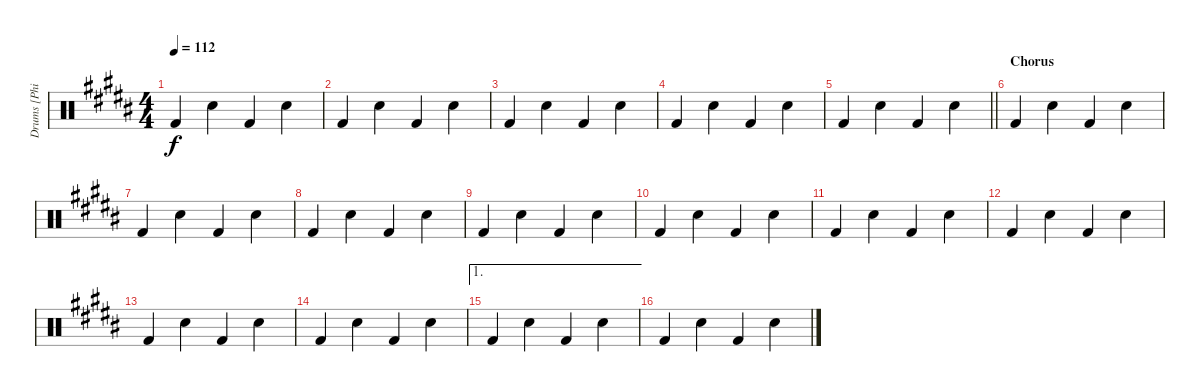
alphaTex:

\track ("Drums [Phill]" "Drums [Phi") {instrument percussion}
\staff {score}
\articulation defaults
\ts (4 4)
\tempo 112
\clef neutral
\ks b "Kick (hit) 2".4{dy f} "Snare (hit) 2".4 "Kick (hit) 2".4 "Snare (hit) 2".4
|
"Kick (hit) 2".4 "Snare (hit) 2".4 "Kick (hit) 2".4 "Snare (hit) 2".4 |
"Kick (hit) 2".4 "Snare (hit) 2".4 "Kick (hit) 2".4 "Snare (hit) 2".4 |
"Kick (hit) 2".4 "Snare (hit) 2".4 "Kick (hit) 2".4 "Snare (hit) 2".4 |
\barLineRight lightlight "Kick (hit) 2".4 "Snare (hit) 2".4 "Kick (hit) 2".4 "Snare (hit) 2".4
|
\section ("" "Chorus")
"Kick (hit) 2".4 "Snare (hit) 2".4 "Kick (hit) 2".4 "Snare (hit) 2".4 |
"Kick (hit) 2".4 "Snare (hit) 2".4 "Kick (hit) 2".4 "Snare (hit) 2".4 |
"Kick (hit) 2".4 "Snare (hit) 2".4 "Kick (hit) 2".4 "Snare (hit) 2".4 |
"Kick (hit) 2".4 "Snare (hit) 2".4 "Kick (hit) 2".4 "Snare (hit) 2".4 |
"Kick (hit) 2".4 "Snare (hit) 2".4 "Kick (hit) 2".4 "Snare (hit) 2".4 |
"Kick (hit) 2".4 "Snare (hit) 2".4 "Kick (hit) 2".4 "Snare (hit) 2".4 |
"Kick (hit) 2".4 "Snare (hit) 2".4 "Kick (hit) 2".4 "Snare (hit) 2".4 |
"Kick (hit) 2".4 "Snare (hit) 2".4 "Kick (hit) 2".4 "Snare (hit) 2".4 |
"Kick (hit) 2".4 "Snare (hit) 2".4 "Kick (hit) 2".4 "Snare (hit) 2".4 |
\ae 1 "Kick (hit) 2".4 "Snare (hit) 2".4 "Kick (hit) 2".4 "Snare (hit) 2".4
|
"Kick (hit) 2".4 "Snare (hit) 2".4 "Kick (hit) 2".4 "Snare (hit) 2".4
